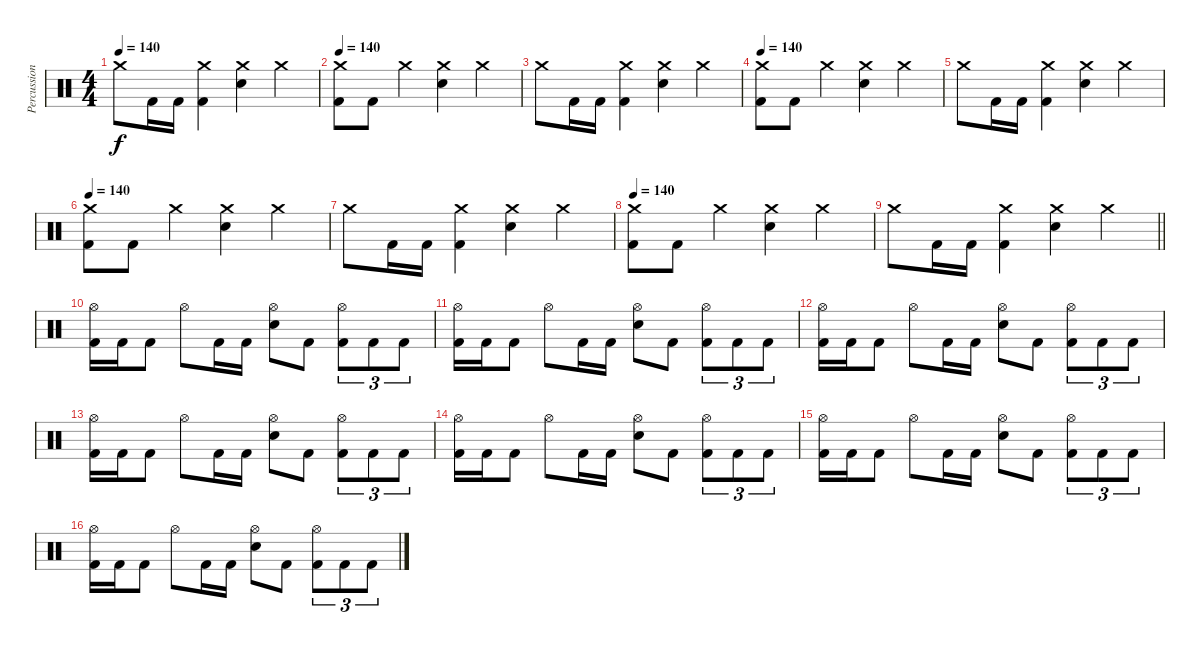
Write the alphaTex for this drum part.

\track ("Percussion" "Percussion") {instrument percussion}
\staff {score}
\articulation defaults
\ts (4 4)
\tempo 140
\clef neutral
\ks c "Crash medium (hit)".8{dy f} "Kick (hit) 2".16 "Kick (hit) 2".16
("Crash medium (hit)" "Kick (hit) 2").4 ("Crash medium (hit)" "Electric Snare (hit)").4 "Crash medium (hit)".4 |
\tempo 140
("Crash medium (hit)" "Kick (hit) 2").8 "Kick (hit) 2".8 "Crash medium (hit)".4 ("Crash medium (hit)" "Electric Snare (hit)").4 "Crash medium (hit)".4 |
"Crash medium (hit)".8 "Kick (hit) 2".16 "Kick (hit) 2".16 ("Crash medium (hit)" "Kick (hit) 2").4 ("Crash medium (hit)" "Electric Snare (hit)").4 "Crash medium (hit)".4 |
\tempo 140
("Crash medium (hit)" "Kick (hit) 2").8 "Kick (hit) 2".8 "Crash medium (hit)".4 ("Crash medium (hit)" "Electric Snare (hit)").4 "Crash medium (hit)".4 |
"Crash medium (hit)".8 "Kick (hit) 2".16 "Kick (hit) 2".16 ("Crash medium (hit)" "Kick (hit) 2").4 ("Crash medium (hit)" "Electric Snare (hit)").4 "Crash medium (hit)".4 |
\tempo 140
("Crash medium (hit)" "Kick (hit) 2").8 "Kick (hit) 2".8 "Crash medium (hit)".4 ("Crash medium (hit)" "Electric Snare (hit)").4 "Crash medium (hit)".4 |
"Crash medium (hit)".8 "Kick (hit) 2".16 "Kick (hit) 2".16 ("Crash medium (hit)" "Kick (hit) 2").4 ("Crash medium (hit)" "Electric Snare (hit)").4 "Crash medium (hit)".4 |
\tempo 140
("Crash medium (hit)" "Kick (hit) 2").8 "Kick (hit) 2".8 "Crash medium (hit)".4 ("Crash medium (hit)" "Electric Snare (hit)").4 "Crash medium (hit)".4 |
\barLineRight lightlight "Crash medium (hit)".8 "Kick (hit) 2".16 "Kick (hit) 2".16
("Crash medium (hit)" "Kick (hit) 2").4 ("Crash medium (hit)" "Electric Snare (hit)").4 "Crash medium (hit)".4 |
\section ("" "")
("Hi-Hat (open)" "Kick (hit) 2").16 "Kick (hit) 2".16 "Kick (hit) 2".8 "Hi-Hat (open)".8 "Kick (hit) 2".16 "Kick (hit) 2".16 ("Hi-Hat (open)" "Electric Snare (hit)").8 "Kick (hit) 2".8 ("Hi-Hat (open)" "Kick (hit) 2").8{tu (3 2)} "Kick (hit) 2".8{tu (3 2)} "Kick (hit) 2".8{tu (3 2)} |
("Hi-Hat (open)" "Kick (hit) 2").16 "Kick (hit) 2".16 "Kick (hit) 2".8 "Hi-Hat (open)".8 "Kick (hit) 2".16 "Kick (hit) 2".16 ("Hi-Hat (open)" "Electric Snare (hit)").8 "Kick (hit) 2".8 ("Hi-Hat (open)" "Kick (hit) 2").8{tu (3 2)} "Kick (hit) 2".8{tu (3 2)} "Kick (hit) 2".8{tu (3 2)} |
("Hi-Hat (open)" "Kick (hit) 2").16 "Kick (hit) 2".16 "Kick (hit) 2".8 "Hi-Hat (open)".8 "Kick (hit) 2".16 "Kick (hit) 2".16 ("Hi-Hat (open)" "Electric Snare (hit)").8 "Kick (hit) 2".8 ("Hi-Hat (open)" "Kick (hit) 2").8{tu (3 2)} "Kick (hit) 2".8{tu (3 2)} "Kick (hit) 2".8{tu (3 2)} |
("Hi-Hat (open)" "Kick (hit) 2").16 "Kick (hit) 2".16 "Kick (hit) 2".8 "Hi-Hat (open)".8 "Kick (hit) 2".16 "Kick (hit) 2".16 ("Hi-Hat (open)" "Electric Snare (hit)").8 "Kick (hit) 2".8 ("Hi-Hat (open)" "Kick (hit) 2").8{tu (3 2)} "Kick (hit) 2".8{tu (3 2)} "Kick (hit) 2".8{tu (3 2)} |
("Hi-Hat (open)" "Kick (hit) 2").16 "Kick (hit) 2".16 "Kick (hit) 2".8 "Hi-Hat (open)".8 "Kick (hit) 2".16 "Kick (hit) 2".16 ("Hi-Hat (open)" "Electric Snare (hit)").8 "Kick (hit) 2".8 ("Hi-Hat (open)" "Kick (hit) 2").8{tu (3 2)} "Kick (hit) 2".8{tu (3 2)} "Kick (hit) 2".8{tu (3 2)} |
("Hi-Hat (open)" "Kick (hit) 2").16 "Kick (hit) 2".16 "Kick (hit) 2".8 "Hi-Hat (open)".8 "Kick (hit) 2".16 "Kick (hit) 2".16 ("Hi-Hat (open)" "Electric Snare (hit)").8 "Kick (hit) 2".8 ("Hi-Hat (open)" "Kick (hit) 2").8{tu (3 2)} "Kick (hit) 2".8{tu (3 2)} "Kick (hit) 2".8{tu (3 2)} |
("Hi-Hat (open)" "Kick (hit) 2").16 "Kick (hit) 2".16 "Kick (hit) 2".8 "Hi-Hat (open)".8 "Kick (hit) 2".16 "Kick (hit) 2".16 ("Hi-Hat (open)" "Electric Snare (hit)").8 "Kick (hit) 2".8 ("Hi-Hat (open)" "Kick (hit) 2").8{tu (3 2)} "Kick (hit) 2".8{tu (3 2)} "Kick (hit) 2".8{tu (3 2)}
